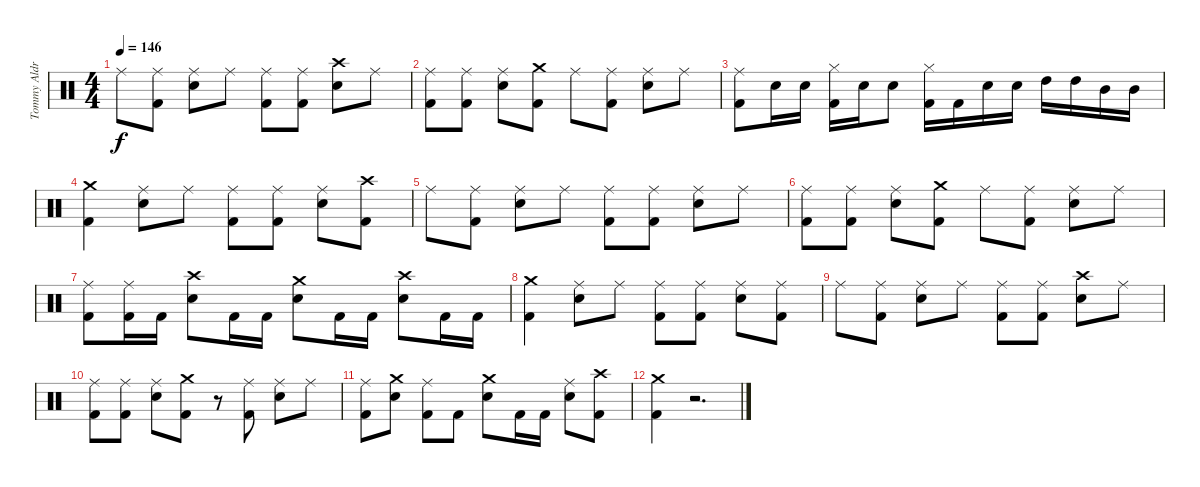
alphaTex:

\track ("Tommy Aldridge Drums" "Tommy Aldr") {instrument percussion}
\staff {score}
\articulation defaults
\ts (4 4)
\tempo 146
\clef neutral
\ks aminor "Ride (middle)".8{dy f}
("Ride (middle)" "Kick (hit) 2").8 ("Ride (middle)" "Electric Snare (hit)").8 "Ride (middle)".8 ("Ride (middle)" "Kick (hit) 2").8 ("Ride (middle)" "Kick (hit) 2").8 ("Crash high (hit)" "Electric Snare (hit)").8 "Ride (middle)".8 |
("Ride (middle)" "Kick (hit) 2").8 ("Ride (middle)" "Kick (hit) 2").8 ("Ride (middle)" "Electric Snare (hit)").8 ("Crash medium (hit)" "Kick (hit) 2").8 "Ride (middle)".8 ("Ride (middle)" "Kick (hit) 2").8 ("Ride (middle)" "Electric Snare (hit)").8 "Ride (middle)".8 |
("Ride (middle)" "Kick (hit) 2").8 "Electric Snare (hit)".16 "Electric Snare (hit)".16 ("Hi-Hat (closed)" "Kick (hit) 2").16 "Electric Snare (hit)".16 "Electric Snare (hit)".8 ("Hi-Hat (closed)" "Kick (hit) 2").16 "Kick (hit) 2".16 "Electric Snare (hit)".16 "Electric Snare (hit)".16 "High Tom (hit)".16 "High Tom (hit)".16 "Mid Tom (hit)".16 "Mid Tom (hit)".16 |
("Crash medium (hit)" "Kick (hit) 2").4 ("Ride (middle)" "Electric Snare (hit)").8 "Ride (middle)".8 ("Ride (middle)" "Kick (hit) 2").8 ("Ride (middle)" "Kick (hit) 2").8 ("Ride (middle)" "Electric Snare (hit)").8 ("Crash high (hit)" "Kick (hit) 2").8 |
"Ride (middle)".8 ("Ride (middle)" "Kick (hit) 2").8 ("Ride (middle)" "Electric Snare (hit)").8 "Ride (middle)".8 ("Ride (middle)" "Kick (hit) 2").8 ("Ride (middle)" "Kick (hit) 2").8 ("Ride (middle)" "Electric Snare (hit)").8 "Ride (middle)".8 |
("Ride (middle)" "Kick (hit) 2").8 ("Ride (middle)" "Kick (hit) 2").8 ("Ride (middle)" "Electric Snare (hit)").8 ("Crash medium (hit)" "Kick (hit) 2").8 "Ride (middle)".8 ("Ride (middle)" "Kick (hit) 2").8 ("Ride (middle)" "Electric Snare (hit)").8 "Ride (middle)".8 |
("Ride (middle)" "Kick (hit) 2").8 ("Ride (middle)" "Kick (hit) 2").16 "Kick (hit) 2".16 ("Crash high (hit)" "Electric Snare (hit)").8 "Kick (hit) 2".16 "Kick (hit) 2".16 ("Crash medium (hit)" "Electric Snare (hit)").8 "Kick (hit) 2".16 "Kick (hit) 2".16 ("Crash high (hit)" "Electric Snare (hit)").8 "Kick (hit) 2".16 "Kick (hit) 2".16 |
("Crash medium (hit)" "Kick (hit) 2").4 ("Ride (middle)" "Electric Snare (hit)").8 "Ride (middle)".8 ("Ride (middle)" "Kick (hit) 2").8 ("Ride (middle)" "Kick (hit) 2").8 ("Ride (middle)" "Electric Snare (hit)").8 ("Ride (middle)" "Kick (hit) 2").8 |
"Ride (middle)".8 ("Ride (middle)" "Kick (hit) 2").8 ("Ride (middle)" "Electric Snare (hit)").8 "Ride (middle)".8 ("Ride (middle)" "Kick (hit) 2").8 ("Ride (middle)" "Kick (hit) 2").8 ("Crash high (hit)" "Electric Snare (hit)").8 "Ride (middle)".8 |
("Ride (middle)" "Kick (hit) 2").8 ("Ride (middle)" "Kick (hit) 2").8 ("Ride (middle)" "Electric Snare (hit)").8 ("Crash medium (hit)" "Kick (hit) 2").8 r.8 ("Ride (middle)" "Kick (hit) 2").8 ("Ride (middle)" "Electric Snare (hit)").8 "Ride (middle)".8 |
("Ride (middle)" "Kick (hit) 2").8 ("Crash medium (hit)" "Electric Snare (hit)").8 ("Ride (middle)" "Kick (hit) 2").8 "Kick (hit) 2".8 ("Crash medium (hit)" "Electric Snare (hit)").8 "Kick (hit) 2".16 "Kick (hit) 2".16 ("Ride (middle)" "Electric Snare (hit)").8 ("Crash high (hit)" "Kick (hit) 2").8 |
("Crash medium (hit)" "Kick (hit) 2").4 r.2{d}
